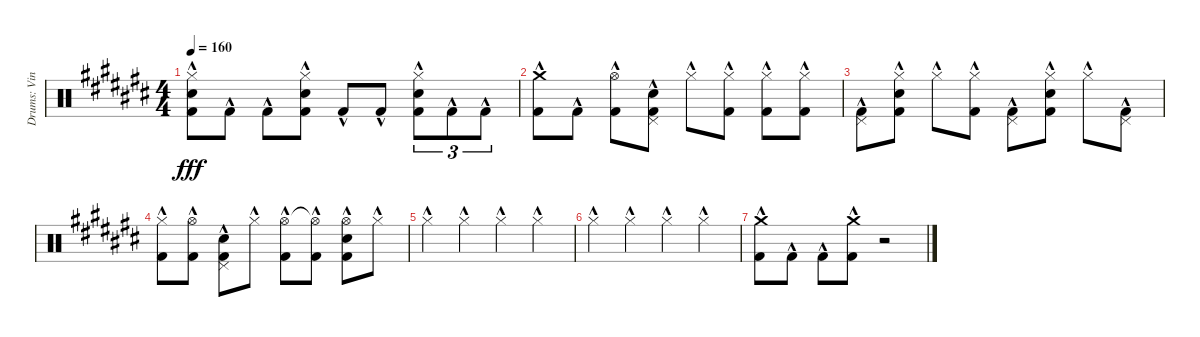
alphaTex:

\track ("Drums: Vinny" "Drums: Vin") {instrument percussion}
\staff {score}
\articulation defaults
\ts (4 4)
\tempo 160
\clef neutral
\ks c#
("Hi-Hat (closed)"{hac} "Snare (hit) 2"{hac} "Kick (hit) 2"{hac}).8{dy fff} "Kick (hit) 2"{hac}.8 "Kick (hit) 2"{hac}.8 ("Hi-Hat (closed)"{hac} "Snare (hit) 2"{hac} "Kick (hit) 2"{hac}).8 "Kick (hit) 2"{hac}.8 "Kick (hit) 2"{hac}.8 ("Hi-Hat (closed)"{hac} "Snare (hit) 2"{hac} "Kick (hit) 2"{hac}).8{tu (3 2)} "Kick (hit) 2"{hac}.8{tu (3 2)} "Kick (hit) 2"{hac}.8{tu (3 2)} |
("Crash medium (hit)"{hac} "Kick (hit) 2"{hac}).8 "Kick (hit) 2"{hac}.8 ("Hi-Hat (open)"{hac} "Kick (hit) 2"{hac}).8 ("Pedal Hi-Hat (hit)"{hac} "Snare (hit) 2"{hac} "Kick (hit) 2"{hac}).8 "Hi-Hat (closed)"{hac}.8 ("Hi-Hat (closed)"{hac} "Kick (hit) 2"{hac}).8 ("Hi-Hat (closed)"{hac} "Kick (hit) 2"{hac}).8 ("Hi-Hat (closed)"{hac} "Kick (hit) 2"{hac}).8 |
("Pedal Hi-Hat (hit)"{hac} "Kick (hit) 2"{hac}).8 ("Hi-Hat (closed)"{hac} "Snare (hit) 2"{hac} "Kick (hit) 2"{hac}).8 "Hi-Hat (closed)"{hac}.8 ("Hi-Hat (closed)"{hac} "Kick (hit) 2"{hac}).8 ("Pedal Hi-Hat (hit)"{hac} "Kick (hit) 2"{hac}).8 ("Hi-Hat (closed)"{hac} "Snare (hit) 2"{hac} "Kick (hit) 2"{hac}).8 "Hi-Hat (closed)"{hac}.8 ("Pedal Hi-Hat (hit)"{hac} "Kick (hit) 2"{hac}).8 |
("Hi-Hat (closed)"{hac} "Kick (hit) 2"{hac}).8 ("Hi-Hat (open)"{hac} "Kick (hit) 2"{hac}).8 ("Pedal Hi-Hat (hit)"{hac} "Snare (hit) 2"{hac} "Kick (hit) 2"{hac}).8 "Hi-Hat (closed)"{hac}.8 ("Hi-Hat (open)"{hac} "Kick (hit) 2"{hac}).8 ("Hi-Hat (open)"{t} "Kick (hit) 2"{hac}).8 ("Hi-Hat (open)"{hac} "Snare (hit) 2"{hac} "Kick (hit) 2"{hac}).8 "Hi-Hat (closed)"{hac}.8 |
"Hi-Hat (closed)"{hac}.4 "Hi-Hat (closed)"{hac}.4 "Hi-Hat (closed)"{hac}.4 "Hi-Hat (closed)"{hac}.4 |
"Hi-Hat (closed)"{hac}.4 "Hi-Hat (closed)"{hac}.4 "Hi-Hat (closed)"{hac}.4 "Hi-Hat (closed)"{hac}.4 |
("Crash medium (hit)"{hac} "Kick (hit) 2"{hac}).8 "Kick (hit) 2"{hac}.8 "Kick (hit) 2"{hac}.8 ("Crash medium (hit)" "Kick (hit) 2"{hac}).8 r.2
